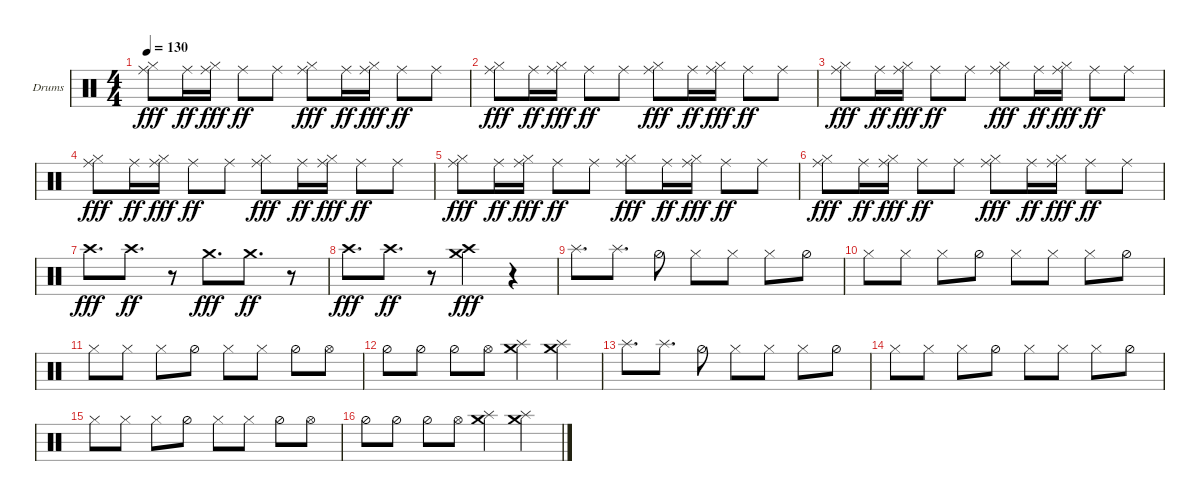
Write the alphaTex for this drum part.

\defaultSystemsLayout 4
\bracketExtendMode groupsimilarinstruments
\firstSystemTrackNameOrientation horizontal
\otherSystemsTrackNameOrientation horizontal
\track ("Helders" "Drums") {instrument percussion}
\staff {score}
\articulation defaults
\ts (4 4)
\tempo 130
\clef neutral
\ks c
("Ride (middle)" "Hi-Hat (closed)").8{dy fff} "Ride (middle)".16{dy ff} ("Ride (middle)" "Hi-Hat (closed)").16{dy fff} "Ride (middle)".8{dy ff} "Ride (middle)".8 ("Ride (middle)" "Hi-Hat (closed)").8{dy fff} "Ride (middle)".16{dy ff} ("Ride (middle)" "Hi-Hat (closed)").16{dy fff} "Ride (middle)".8{dy ff} "Ride (middle)".8 |
("Ride (middle)" "Hi-Hat (closed)").8{dy fff} "Ride (middle)".16{dy ff} ("Ride (middle)" "Hi-Hat (closed)").16{dy fff} "Ride (middle)".8{dy ff} "Ride (middle)".8 ("Ride (middle)" "Hi-Hat (closed)").8{dy fff} "Ride (middle)".16{dy ff} ("Ride (middle)" "Hi-Hat (closed)").16{dy fff} "Ride (middle)".8{dy ff} "Ride (middle)".8 |
("Ride (middle)" "Hi-Hat (closed)").8{dy fff} "Ride (middle)".16{dy ff} ("Ride (middle)" "Hi-Hat (closed)").16{dy fff} "Ride (middle)".8{dy ff} "Ride (middle)".8 ("Ride (middle)" "Hi-Hat (closed)").8{dy fff} "Ride (middle)".16{dy ff} ("Ride (middle)" "Hi-Hat (closed)").16{dy fff} "Ride (middle)".8{dy ff} "Ride (middle)".8 |
("Ride (middle)" "Hi-Hat (closed)").8{dy fff} "Ride (middle)".16{dy ff} ("Ride (middle)" "Hi-Hat (closed)").16{dy fff} "Ride (middle)".8{dy ff} "Ride (middle)".8 ("Ride (middle)" "Hi-Hat (closed)").8{dy fff} "Ride (middle)".16{dy ff} ("Ride (middle)" "Hi-Hat (closed)").16{dy fff} "Ride (middle)".8{dy ff} "Ride (middle)".8 |
("Ride (middle)" "Hi-Hat (closed)").8{dy fff} "Ride (middle)".16{dy ff} ("Ride (middle)" "Hi-Hat (closed)").16{dy fff} "Ride (middle)".8{dy ff} "Ride (middle)".8 ("Ride (middle)" "Hi-Hat (closed)").8{dy fff} "Ride (middle)".16{dy ff} ("Ride (middle)" "Hi-Hat (closed)").16{dy fff} "Ride (middle)".8{dy ff} "Ride (middle)".8 |
("Ride (middle)" "Hi-Hat (closed)").8{dy fff} "Ride (middle)".16{dy ff} ("Ride (middle)" "Hi-Hat (closed)").16{dy fff} "Ride (middle)".8{dy ff} "Ride (middle)".8 ("Ride (middle)" "Hi-Hat (closed)").8{dy fff} "Ride (middle)".16{dy ff} ("Ride (middle)" "Hi-Hat (closed)").16{dy fff} "Ride (middle)".8{dy ff} "Ride (middle)".8 |
"Crash high (hit)".8{d dy fff} "Crash high (hit)".8{d dy ff} r.8 "Crash medium (hit)".8{d dy fff} "Crash medium (hit)".8{d dy ff} r.8 |
"Crash high (hit)".8{d dy fff} "Crash high (hit)".8{d dy ff} r.8 ("Crash medium (hit)" "Crash high (hit)").4{dy fff} r.4 |
"Splash (hit)".8{d} "Splash (hit)".8{d} "Hi-Hat (half)".8 "Hi-Hat (closed)".8 "Hi-Hat (closed)".8 "Hi-Hat (closed)".8 "Hi-Hat (half)".8 |
"Hi-Hat (closed)".8 "Hi-Hat (closed)".8 "Hi-Hat (closed)".8 "Hi-Hat (half)".8 "Hi-Hat (closed)".8 "Hi-Hat (closed)".8 "Hi-Hat (closed)".8 "Hi-Hat (half)".8 |
"Hi-Hat (closed)".8 "Hi-Hat (closed)".8 "Hi-Hat (closed)".8 "Hi-Hat (half)".8 "Hi-Hat (closed)".8 "Hi-Hat (closed)".8 "Hi-Hat (half)".8 "Hi-Hat (open)".8 |
"Hi-Hat (half)".8 "Hi-Hat (half)".8 "Hi-Hat (half)".8 "Hi-Hat (open)".8 ("Splash (hit)" "Crash medium (hit)").4 ("Splash (hit)" "Crash medium (hit)").4 |
"Splash (hit)".8{d} "Splash (hit)".8{d} "Hi-Hat (half)".8 "Hi-Hat (closed)".8 "Hi-Hat (closed)".8 "Hi-Hat (closed)".8 "Hi-Hat (half)".8 |
"Hi-Hat (closed)".8 "Hi-Hat (closed)".8 "Hi-Hat (closed)".8 "Hi-Hat (half)".8 "Hi-Hat (closed)".8 "Hi-Hat (closed)".8 "Hi-Hat (closed)".8 "Hi-Hat (half)".8 |
"Hi-Hat (closed)".8 "Hi-Hat (closed)".8 "Hi-Hat (closed)".8 "Hi-Hat (half)".8 "Hi-Hat (closed)".8 "Hi-Hat (closed)".8 "Hi-Hat (half)".8 "Hi-Hat (open)".8 |
"Hi-Hat (half)".8 "Hi-Hat (half)".8 "Hi-Hat (half)".8 "Hi-Hat (open)".8 ("Splash (hit)" "Crash medium (hit)").4 ("Splash (hit)" "Crash medium (hit)").4
